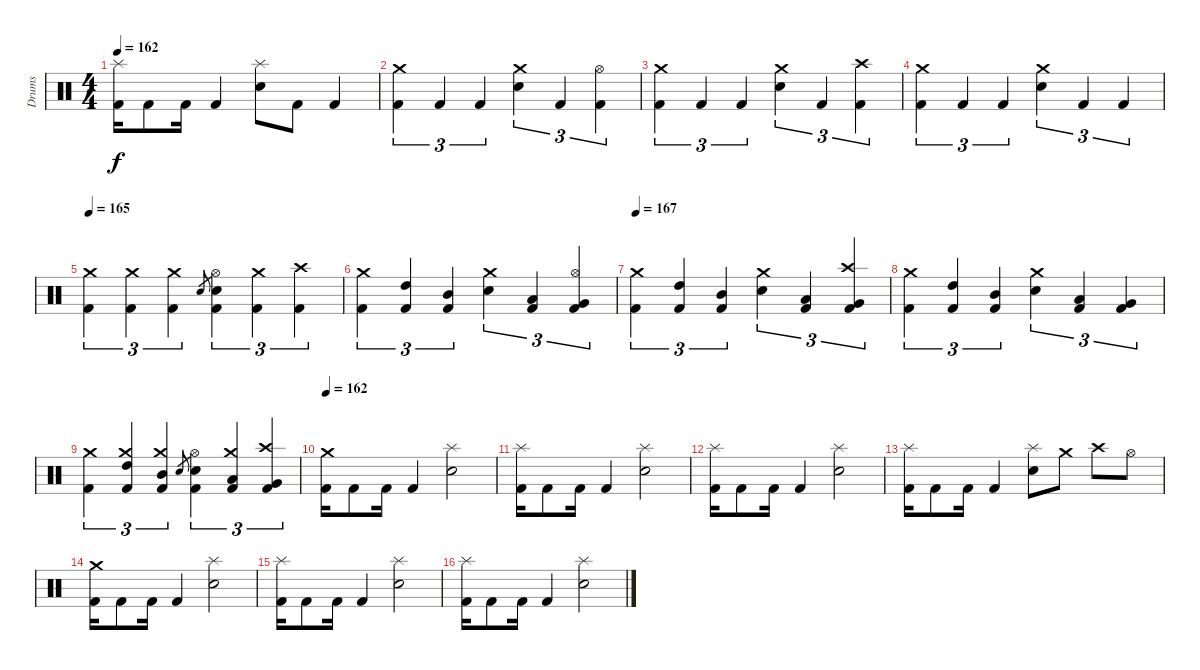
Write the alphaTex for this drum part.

\track ("Drums" "Drums") {instrument percussion}
\staff {score}
\articulation defaults
\ts (4 4)
\tempo 162
\clef neutral
\ks c
("Splash (hit)" "Kick (hit) 2").16{dy f} "Kick (hit) 2".8 "Kick (hit) 2".16 "Kick (hit) 2".4 ("Splash (hit)" "Snare (hit) 2").8 "Kick (hit) 2".8 "Kick (hit) 2".4 |
("Crash medium (hit)" "Kick (hit) 2").4{tu (3 2)} "Kick (hit) 2".4{tu (3 2)} "Kick (hit) 2".4{tu (3 2)} ("Crash medium (hit)" "Snare (hit) 2").4{tu (3 2)} "Kick (hit) 2".4{tu (3 2)} ("Hi-Hat (open)" "Kick (hit) 2").4{tu (3 2)} |
("Crash medium (hit)" "Kick (hit) 2").4{tu (3 2)} "Kick (hit) 2".4{tu (3 2)} "Kick (hit) 2".4{tu (3 2)} ("Crash medium (hit)" "Snare (hit) 2").4{tu (3 2)} "Kick (hit) 2".4{tu (3 2)} ("Crash high (hit)" "Kick (hit) 2").4{tu (3 2)} |
("Crash medium (hit)" "Kick (hit) 2").4{tu (3 2)} "Kick (hit) 2".4{tu (3 2)} "Kick (hit) 2".4{tu (3 2)} ("Crash medium (hit)" "Snare (hit) 2").4{tu (3 2)} "Kick (hit) 2".4{tu (3 2)} "Kick (hit) 2".4{tu (3 2)} |
\tempo 165
("Crash medium (hit)" "Kick (hit) 2").4{tu (3 2)} ("Crash medium (hit)" "Kick (hit) 2").4{tu (3 2)} ("Crash medium (hit)" "Kick (hit) 2").4{tu (3 2)} "Snare (hit) 2".8{gr} ("Hi-Hat (open)" "Snare (hit) 2" "Kick (hit) 2").4{tu (3 2)} ("Crash medium (hit)" "Kick (hit) 2").4{tu (3 2)} ("Crash high (hit)" "Kick (hit) 2").4{tu (3 2)} |
("Crash medium (hit)" "Kick (hit) 2").4{tu (3 2)} ("High Tom (hit)" "Kick (hit) 2").4{tu (3 2)} ("Mid Tom (hit)" "Kick (hit) 2").4{tu (3 2)} ("Crash medium (hit)" "Snare (hit) 2").4{tu (3 2)} ("Low Tom (hit)" "Kick (hit) 2").4{tu (3 2)} ("Hi-Hat (open)" "Very Low Tom (hit)" "Kick (hit) 2").4{tu (3 2)} |
\tempo 167
("Crash medium (hit)" "Kick (hit) 2").4{tu (3 2)} ("High Tom (hit)" "Kick (hit) 2").4{tu (3 2)} ("Mid Tom (hit)" "Kick (hit) 2").4{tu (3 2)} ("Crash medium (hit)" "Snare (hit) 2").4{tu (3 2)} ("Low Tom (hit)" "Kick (hit) 2").4{tu (3 2)} ("Crash high (hit)" "Very Low Tom (hit)" "Kick (hit) 2").4{tu (3 2)} |
("Crash medium (hit)" "Kick (hit) 2").4{tu (3 2)} ("High Tom (hit)" "Kick (hit) 2").4{tu (3 2)} ("Mid Tom (hit)" "Kick (hit) 2").4{tu (3 2)} ("Crash medium (hit)" "Snare (hit) 2").4{tu (3 2)} ("Low Tom (hit)" "Kick (hit) 2").4{tu (3 2)} ("Very Low Tom (hit)" "Kick (hit) 2").4{tu (3 2)} |
("Crash medium (hit)" "Kick (hit) 2").4{tu (3 2)} ("Crash medium (hit)" "High Tom (hit)" "Kick (hit) 2").4{tu (3 2)} ("Crash medium (hit)" "Mid Tom (hit)" "Kick (hit) 2").4{tu (3 2)} "Snare (hit) 2".8{gr} ("Hi-Hat (open)" "Snare (hit) 2" "Kick (hit) 2").4{tu (3 2)} ("Crash medium (hit)" "Low Tom (hit)" "Kick (hit) 2").4{tu (3 2)} ("Crash high (hit)" "Very Low Tom (hit)" "Kick (hit) 2").4{tu (3 2)} |
\tempo 162
("Crash medium (hit)" "Kick (hit) 2").16 "Kick (hit) 2".8 "Kick (hit) 2".16 "Kick (hit) 2".4 ("Splash (hit)" "Snare (hit) 2").2 |
("Splash (hit)" "Kick (hit) 2").16 "Kick (hit) 2".8 "Kick (hit) 2".16 "Kick (hit) 2".4 ("Splash (hit)" "Snare (hit) 2").2 |
("Splash (hit)" "Kick (hit) 2").16 "Kick (hit) 2".8 "Kick (hit) 2".16 "Kick (hit) 2".4 ("Splash (hit)" "Snare (hit) 2").2 |
("Splash (hit)" "Kick (hit) 2").16 "Kick (hit) 2".8 "Kick (hit) 2".16 "Kick (hit) 2".4 ("Splash (hit)" "Snare (hit) 2").8 "Crash medium (hit)".8 "Crash high (hit)".8 "Hi-Hat (open)".8 |
("Crash medium (hit)" "Kick (hit) 2").16 "Kick (hit) 2".8 "Kick (hit) 2".16 "Kick (hit) 2".4 ("Splash (hit)" "Snare (hit) 2").2 |
("Splash (hit)" "Kick (hit) 2").16 "Kick (hit) 2".8 "Kick (hit) 2".16 "Kick (hit) 2".4 ("Splash (hit)" "Snare (hit) 2").2 |
("Splash (hit)" "Kick (hit) 2").16 "Kick (hit) 2".8 "Kick (hit) 2".16 "Kick (hit) 2".4 ("Splash (hit)" "Snare (hit) 2").2
